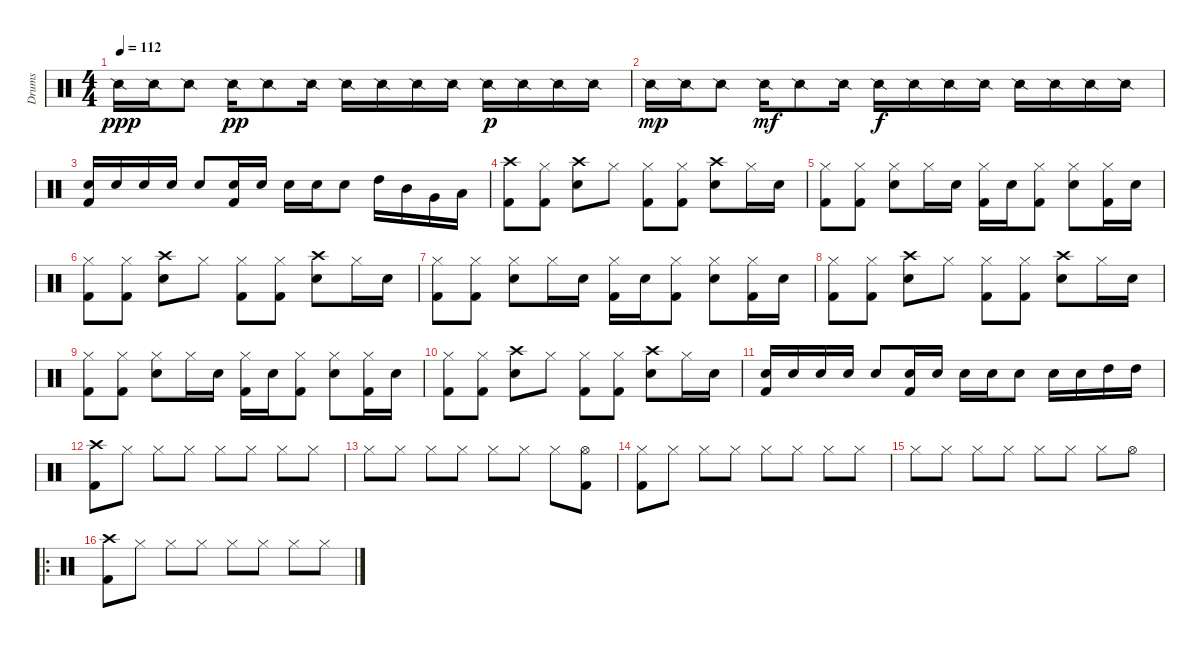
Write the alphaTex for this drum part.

\track ("Drums" "Drums") {instrument percussion}
\staff {score}
\articulation defaults
\ts (4 4)
\tempo 112
\clef neutral
\ks c "Snare (side stick) 2".16{dy ppp} "Snare (side stick) 2".16 "Snare (side stick) 2".8 "Snare (side stick) 2".16{dy pp} "Snare (side stick) 2".8 "Snare (side stick) 2".16 "Snare (side stick) 2".16 "Snare (side stick) 2".16 "Snare (side stick) 2".16 "Snare (side stick) 2".16 "Snare (side stick) 2".16{dy p} "Snare (side stick) 2".16 "Snare (side stick) 2".16 "Snare (side stick) 2".16
|
"Snare (side stick) 2".16{dy mp} "Snare (side stick) 2".16 "Snare (side stick) 2".8 "Snare (side stick) 2".16{dy mf} "Snare (side stick) 2".8 "Snare (side stick) 2".16 "Snare (side stick) 2".16{dy f} "Snare (side stick) 2".16 "Snare (side stick) 2".16 "Snare (side stick) 2".16 "Snare (side stick) 2".16 "Snare (side stick) 2".16 "Snare (side stick) 2".16 "Snare (side stick) 2".16 |
("Snare (hit) 2" "Kick (hit) 2").16 "Snare (hit) 2".16 "Snare (hit) 2".16 "Snare (hit) 2".16 "Snare (hit) 2".8 ("Snare (hit) 2" "Kick (hit) 2").16 "Snare (hit) 2".16 "Snare (hit) 2".16 "Snare (hit) 2".16 "Snare (hit) 2".8 "High Tom (hit)".16 "Mid Tom (hit)".16 "Very Low Tom (hit)".16 "Low Tom (hit)".16 |
("Crash high (hit)" "Kick (hit) 2").8 ("Hi-Hat (closed)" "Kick (hit) 2").8 ("Crash high (hit)" "Snare (hit) 2").8 "Hi-Hat (closed)".8 ("Hi-Hat (closed)" "Kick (hit) 2").8 ("Hi-Hat (closed)" "Kick (hit) 2").8 ("Crash high (hit)" "Snare (hit) 2").8 "Hi-Hat (closed)".16 "Snare (hit) 2".16 |
("Hi-Hat (closed)" "Kick (hit) 2").8 ("Hi-Hat (closed)" "Kick (hit) 2").8 ("Hi-Hat (closed)" "Snare (hit) 2").8 "Hi-Hat (closed)".16 "Snare (hit) 2".16 ("Hi-Hat (closed)" "Kick (hit) 2").16 "Snare (hit) 2".16 ("Hi-Hat (closed)" "Kick (hit) 2").8 ("Hi-Hat (closed)" "Snare (hit) 2").8 ("Hi-Hat (closed)" "Kick (hit) 2").16 "Snare (hit) 2".16 |
("Hi-Hat (closed)" "Kick (hit) 2").8 ("Hi-Hat (closed)" "Kick (hit) 2").8 ("Crash high (hit)" "Snare (hit) 2").8 "Hi-Hat (closed)".8 ("Hi-Hat (closed)" "Kick (hit) 2").8 ("Hi-Hat (closed)" "Kick (hit) 2").8 ("Crash high (hit)" "Snare (hit) 2").8 "Hi-Hat (closed)".16 "Snare (hit) 2".16 |
("Hi-Hat (closed)" "Kick (hit) 2").8 ("Hi-Hat (closed)" "Kick (hit) 2").8 ("Hi-Hat (closed)" "Snare (hit) 2").8 "Hi-Hat (closed)".16 "Snare (hit) 2".16 ("Hi-Hat (closed)" "Kick (hit) 2").16 "Snare (hit) 2".16 ("Hi-Hat (closed)" "Kick (hit) 2").8 ("Hi-Hat (closed)" "Snare (hit) 2").8 ("Hi-Hat (closed)" "Kick (hit) 2").16 "Snare (hit) 2".16 |
("Hi-Hat (closed)" "Kick (hit) 2").8 ("Hi-Hat (closed)" "Kick (hit) 2").8 ("Crash high (hit)" "Snare (hit) 2").8 "Hi-Hat (closed)".8 ("Hi-Hat (closed)" "Kick (hit) 2").8 ("Hi-Hat (closed)" "Kick (hit) 2").8 ("Crash high (hit)" "Snare (hit) 2").8 "Hi-Hat (closed)".16 "Snare (hit) 2".16 |
("Hi-Hat (closed)" "Kick (hit) 2").8 ("Hi-Hat (closed)" "Kick (hit) 2").8 ("Hi-Hat (closed)" "Snare (hit) 2").8 "Hi-Hat (closed)".16 "Snare (hit) 2".16 ("Hi-Hat (closed)" "Kick (hit) 2").16 "Snare (hit) 2".16 ("Hi-Hat (closed)" "Kick (hit) 2").8 ("Hi-Hat (closed)" "Snare (hit) 2").8 ("Hi-Hat (closed)" "Kick (hit) 2").16 "Snare (hit) 2".16 |
("Hi-Hat (closed)" "Kick (hit) 2").8 ("Hi-Hat (closed)" "Kick (hit) 2").8 ("Crash high (hit)" "Snare (hit) 2").8 "Hi-Hat (closed)".8 ("Hi-Hat (closed)" "Kick (hit) 2").8 ("Hi-Hat (closed)" "Kick (hit) 2").8 ("Crash high (hit)" "Snare (hit) 2").8 "Hi-Hat (closed)".16 "Snare (hit) 2".16 |
("Snare (hit) 2" "Kick (hit) 2").16 "Snare (hit) 2".16 "Snare (hit) 2".16 "Snare (hit) 2".16 "Snare (hit) 2".8 ("Snare (hit) 2" "Kick (hit) 2").16 "Snare (hit) 2".16 "Snare (hit) 2".16 "Snare (hit) 2".16 "Snare (hit) 2".8 "Snare (hit) 2".16 "Snare (hit) 2".16 "High Tom (hit)".16 "High Tom (hit)".16 |
("Crash high (hit)" "Kick (hit) 2").8 "Hi-Hat (closed)".8 "Hi-Hat (closed)".8 "Hi-Hat (closed)".8 "Hi-Hat (closed)".8 "Hi-Hat (closed)".8 "Hi-Hat (closed)".8 "Hi-Hat (closed)".8 |
"Hi-Hat (closed)".8 "Hi-Hat (closed)".8 "Hi-Hat (closed)".8 "Hi-Hat (closed)".8 "Hi-Hat (closed)".8 "Hi-Hat (closed)".8 "Hi-Hat (closed)".8 ("Hi-Hat (open)" "Kick (hit) 2").8 |
("Hi-Hat (closed)" "Kick (hit) 2").8 "Hi-Hat (closed)".8 "Hi-Hat (closed)".8 "Hi-Hat (closed)".8 "Hi-Hat (closed)".8 "Hi-Hat (closed)".8 "Hi-Hat (closed)".8 "Hi-Hat (closed)".8 |
"Hi-Hat (closed)".8 "Hi-Hat (closed)".8 "Hi-Hat (closed)".8 "Hi-Hat (closed)".8 "Hi-Hat (closed)".8 "Hi-Hat (closed)".8 "Hi-Hat (closed)".8 "Hi-Hat (open)".8 |
\ro
("Crash high (hit)" "Kick (hit) 2").8 "Hi-Hat (closed)".8 "Hi-Hat (closed)".8 "Hi-Hat (closed)".8 "Hi-Hat (closed)".8 "Hi-Hat (closed)".8 "Hi-Hat (closed)".8 "Hi-Hat (closed)".8
